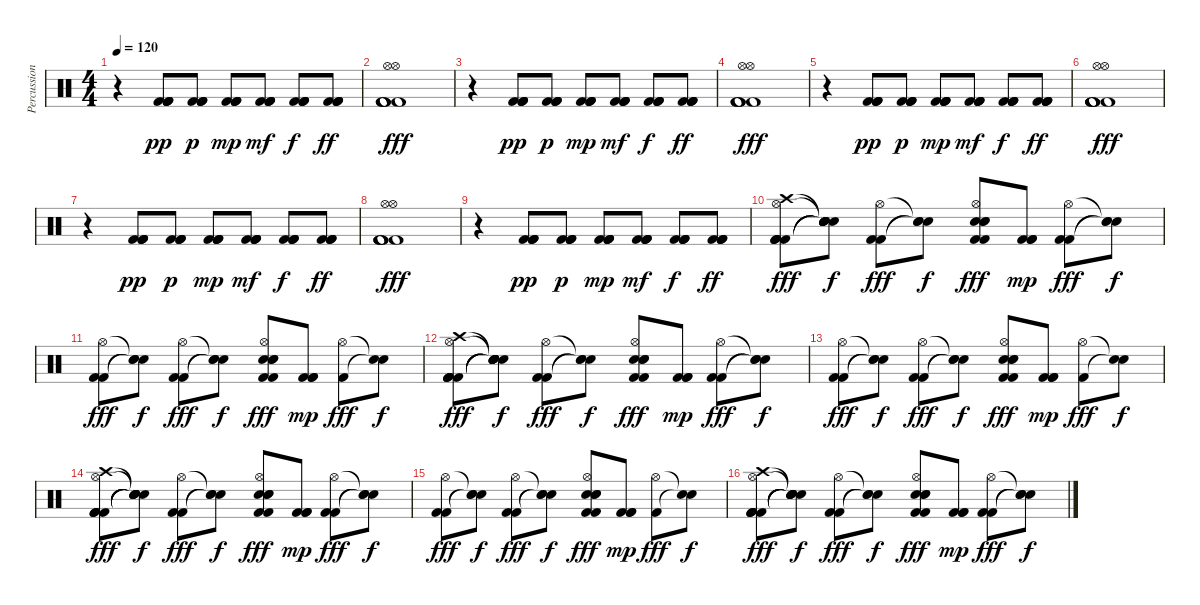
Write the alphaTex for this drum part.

\track ("Percussions" "Percussion") {instrument percussion}
\staff {score}
\articulation defaults
\ts (4 4)
\tempo 120
\clef neutral
\ks c
r.4{dy fff} ("Kick (hit) 2" "Kick (hit) 2" "Kick (hit) 2" "Kick (hit) 2").8{dy pp} ("Kick (hit) 2" "Kick (hit) 2" "Kick (hit) 2" "Kick (hit) 2").8{dy p} ("Kick (hit) 2" "Kick (hit) 2" "Kick (hit) 2" "Kick (hit) 2").8{dy mp} ("Kick (hit) 2" "Kick (hit) 2" "Kick (hit) 2" "Kick (hit) 2").8{dy mf} ("Kick (hit) 2" "Kick (hit) 2" "Kick (hit) 2" "Kick (hit) 2").8{dy f} ("Kick (hit) 2" "Kick (hit) 2" "Kick (hit) 2" "Kick (hit) 2").8{dy ff} |
("Hi-Hat (open)" "Hi-Hat (open)" "Kick (hit) 2" "Kick (hit) 2" "Kick (hit) 2" "Kick (hit) 2").1{dy fff} |
r.4 ("Kick (hit) 2" "Kick (hit) 2" "Kick (hit) 2" "Kick (hit) 2").8{dy pp} ("Kick (hit) 2" "Kick (hit) 2" "Kick (hit) 2" "Kick (hit) 2").8{dy p} ("Kick (hit) 2" "Kick (hit) 2" "Kick (hit) 2" "Kick (hit) 2").8{dy mp} ("Kick (hit) 2" "Kick (hit) 2" "Kick (hit) 2" "Kick (hit) 2").8{dy mf} ("Kick (hit) 2" "Kick (hit) 2" "Kick (hit) 2" "Kick (hit) 2").8{dy f} ("Kick (hit) 2" "Kick (hit) 2" "Kick (hit) 2" "Kick (hit) 2").8{dy ff} |
("Hi-Hat (open)" "Hi-Hat (open)" "Kick (hit) 2" "Kick (hit) 2" "Kick (hit) 2" "Kick (hit) 2").1{dy fff} |
r.4 ("Kick (hit) 2" "Kick (hit) 2" "Kick (hit) 2" "Kick (hit) 2").8{dy pp} ("Kick (hit) 2" "Kick (hit) 2" "Kick (hit) 2" "Kick (hit) 2").8{dy p} ("Kick (hit) 2" "Kick (hit) 2" "Kick (hit) 2" "Kick (hit) 2").8{dy mp} ("Kick (hit) 2" "Kick (hit) 2" "Kick (hit) 2" "Kick (hit) 2").8{dy mf} ("Kick (hit) 2" "Kick (hit) 2" "Kick (hit) 2" "Kick (hit) 2").8{dy f} ("Kick (hit) 2" "Kick (hit) 2" "Kick (hit) 2" "Kick (hit) 2").8{dy ff} |
("Hi-Hat (open)" "Hi-Hat (open)" "Kick (hit) 2" "Kick (hit) 2" "Kick (hit) 2" "Kick (hit) 2").1{dy fff} |
r.4 ("Kick (hit) 2" "Kick (hit) 2" "Kick (hit) 2" "Kick (hit) 2").8{dy pp} ("Kick (hit) 2" "Kick (hit) 2" "Kick (hit) 2" "Kick (hit) 2").8{dy p} ("Kick (hit) 2" "Kick (hit) 2" "Kick (hit) 2" "Kick (hit) 2").8{dy mp} ("Kick (hit) 2" "Kick (hit) 2" "Kick (hit) 2" "Kick (hit) 2").8{dy mf} ("Kick (hit) 2" "Kick (hit) 2" "Kick (hit) 2" "Kick (hit) 2").8{dy f} ("Kick (hit) 2" "Kick (hit) 2" "Kick (hit) 2" "Kick (hit) 2").8{dy ff} |
("Hi-Hat (open)" "Hi-Hat (open)" "Kick (hit) 2" "Kick (hit) 2" "Kick (hit) 2" "Kick (hit) 2").1{dy fff} |
r.4 ("Kick (hit) 2" "Kick (hit) 2" "Kick (hit) 2" "Kick (hit) 2").8{dy pp} ("Kick (hit) 2" "Kick (hit) 2" "Kick (hit) 2" "Kick (hit) 2").8{dy p} ("Kick (hit) 2" "Kick (hit) 2" "Kick (hit) 2" "Kick (hit) 2").8{dy mp} ("Kick (hit) 2" "Kick (hit) 2" "Kick (hit) 2" "Kick (hit) 2").8{dy mf} ("Kick (hit) 2" "Kick (hit) 2" "Kick (hit) 2" "Kick (hit) 2").8{dy f} ("Kick (hit) 2" "Kick (hit) 2" "Kick (hit) 2" "Kick (hit) 2").8{dy ff} |
("Hi-Hat (open)" "Crash high (hit)" "Kick (hit) 2" "Kick (hit) 2" "Kick (hit) 2" "Kick (hit) 2").8{dy fff} ("Snare (hit)"{t} "Snare (hit)"{t} "Snare (hit)"{t} "Snare (hit)"{t} "Snare (hit)"{t} "Snare (hit)"{t}).8{dy f} ("Hi-Hat (open)" "Kick (hit) 2" "Kick (hit) 2").8{dy fff} ("Snare (hit)"{t} "Snare (hit)"{t} "Snare (hit)"{t}).8{dy f} ("Hi-Hat (open)" "Kick (hit) 2" "Snare (hit) 2" "Snare (hit) 2" "Snare (hit) 2" "Kick (hit) 2").8{dy fff} ("Kick (hit) 2" "Kick (hit) 2" "Kick (hit) 2").8{dy mp} ("Hi-Hat (open)" "Kick (hit) 2" "Kick (hit) 2").8{dy fff} ("Snare (hit)"{t} "Snare (hit)"{t} "Snare (hit)"{t}).8{dy f} |
("Hi-Hat (open)" "Kick (hit) 2" "Kick (hit) 2").8{dy fff} ("Snare (hit)"{t} "Snare (hit)"{t} "Snare (hit)"{t}).8{dy f} ("Hi-Hat (open)" "Kick (hit) 2" "Kick (hit) 2").8{dy fff} ("Snare (hit)"{t} "Snare (hit)"{t} "Snare (hit)"{t}).8{dy f} ("Hi-Hat (open)" "Kick (hit) 2" "Snare (hit) 2" "Snare (hit) 2" "Snare (hit) 2" "Kick (hit) 2").8{dy fff} ("Kick (hit) 2" "Kick (hit) 2" "Kick (hit) 2").8{dy mp} ("Hi-Hat (open)" "Kick (hit) 2").8{dy fff} ("Snare (hit)"{t} "Snare (hit)"{t}).8{dy f} |
("Hi-Hat (open)" "Crash high (hit)" "Kick (hit) 2" "Kick (hit) 2" "Kick (hit) 2" "Kick (hit) 2").8{dy fff} ("Snare (hit)"{t} "Snare (hit)"{t} "Snare (hit)"{t} "Snare (hit)"{t} "Snare (hit)"{t} "Snare (hit)"{t}).8{dy f} ("Hi-Hat (open)" "Kick (hit) 2" "Kick (hit) 2").8{dy fff} ("Snare (hit)"{t} "Snare (hit)"{t} "Snare (hit)"{t}).8{dy f} ("Hi-Hat (open)" "Kick (hit) 2" "Snare (hit) 2" "Snare (hit) 2" "Snare (hit) 2" "Kick (hit) 2").8{dy fff} ("Kick (hit) 2" "Kick (hit) 2" "Kick (hit) 2").8{dy mp} ("Hi-Hat (open)" "Kick (hit) 2" "Kick (hit) 2").8{dy fff} ("Snare (hit)"{t} "Snare (hit)"{t} "Snare (hit)"{t}).8{dy f} |
("Hi-Hat (open)" "Kick (hit) 2" "Kick (hit) 2").8{dy fff} ("Snare (hit)"{t} "Snare (hit)"{t} "Snare (hit)"{t}).8{dy f} ("Hi-Hat (open)" "Kick (hit) 2" "Kick (hit) 2").8{dy fff} ("Snare (hit)"{t} "Snare (hit)"{t} "Snare (hit)"{t}).8{dy f} ("Hi-Hat (open)" "Kick (hit) 2" "Snare (hit) 2" "Snare (hit) 2" "Snare (hit) 2" "Kick (hit) 2").8{dy fff} ("Kick (hit) 2" "Kick (hit) 2" "Kick (hit) 2").8{dy mp} ("Hi-Hat (open)" "Kick (hit) 2").8{dy fff} ("Snare (hit)"{t} "Snare (hit)"{t}).8{dy f} |
("Hi-Hat (open)" "Crash high (hit)" "Kick (hit) 2" "Kick (hit) 2" "Kick (hit) 2" "Kick (hit) 2").8{dy fff} ("Snare (hit)"{t} "Snare (hit)"{t} "Snare (hit)"{t} "Snare (hit)"{t} "Snare (hit)"{t} "Snare (hit)"{t}).8{dy f} ("Hi-Hat (open)" "Kick (hit) 2" "Kick (hit) 2").8{dy fff} ("Snare (hit)"{t} "Snare (hit)"{t} "Snare (hit)"{t}).8{dy f} ("Hi-Hat (open)" "Kick (hit) 2" "Snare (hit) 2" "Snare (hit) 2" "Snare (hit) 2" "Kick (hit) 2").8{dy fff} ("Kick (hit) 2" "Kick (hit) 2" "Kick (hit) 2").8{dy mp} ("Hi-Hat (open)" "Kick (hit) 2" "Kick (hit) 2").8{dy fff} ("Snare (hit)"{t} "Snare (hit)"{t} "Snare (hit)"{t}).8{dy f} |
("Hi-Hat (open)" "Kick (hit) 2" "Kick (hit) 2").8{dy fff} ("Snare (hit)"{t} "Snare (hit)"{t} "Snare (hit)"{t}).8{dy f} ("Hi-Hat (open)" "Kick (hit) 2" "Kick (hit) 2").8{dy fff} ("Snare (hit)"{t} "Snare (hit)"{t} "Snare (hit)"{t}).8{dy f} ("Hi-Hat (open)" "Kick (hit) 2" "Snare (hit) 2" "Snare (hit) 2" "Snare (hit) 2" "Kick (hit) 2").8{dy fff} ("Kick (hit) 2" "Kick (hit) 2" "Kick (hit) 2").8{dy mp} ("Hi-Hat (open)" "Kick (hit) 2").8{dy fff} ("Snare (hit)"{t} "Snare (hit)"{t}).8{dy f} |
("Hi-Hat (open)" "Crash high (hit)" "Kick (hit) 2" "Kick (hit) 2" "Kick (hit) 2" "Kick (hit) 2").8{dy fff} ("Snare (hit)"{t} "Snare (hit)"{t} "Snare (hit)"{t} "Snare (hit)"{t} "Snare (hit)"{t} "Snare (hit)"{t}).8{dy f} ("Hi-Hat (open)" "Kick (hit) 2" "Kick (hit) 2").8{dy fff} ("Snare (hit)"{t} "Snare (hit)"{t} "Snare (hit)"{t}).8{dy f} ("Hi-Hat (open)" "Kick (hit) 2" "Snare (hit) 2" "Snare (hit) 2" "Snare (hit) 2" "Kick (hit) 2").8{dy fff} ("Kick (hit) 2" "Kick (hit) 2" "Kick (hit) 2").8{dy mp} ("Hi-Hat (open)" "Kick (hit) 2" "Kick (hit) 2").8{dy fff} ("Snare (hit)"{t} "Snare (hit)"{t} "Snare (hit)"{t}).8{dy f}
